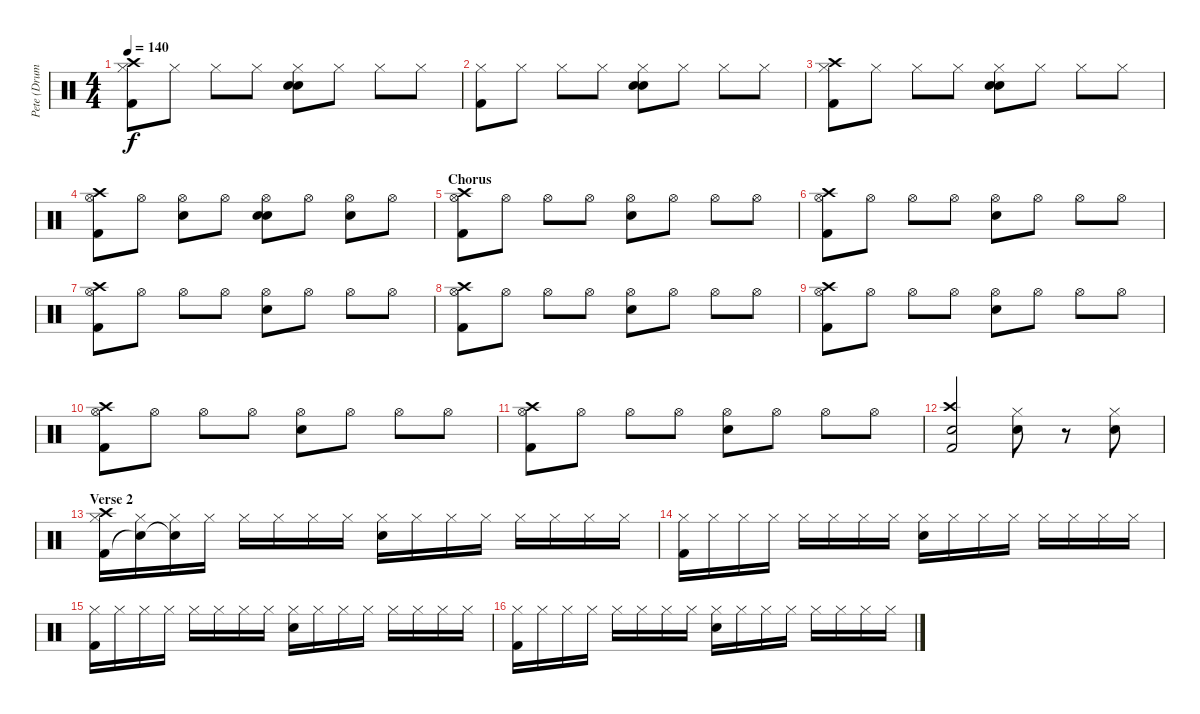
\track ("Pete (Drums)" "Pete (Drum") {instrument percussion}
\staff {score}
\articulation defaults
\ts (4 4)
\tempo 140
\clef neutral
\ks c
("Hi-Hat (closed)" "Kick (hit) 2" "Crash high (hit)").8{dy f} "Hi-Hat (closed)".8 "Hi-Hat (closed)".8 "Hi-Hat (closed)".8 ("Hi-Hat (closed)" "Snare (hit) 2" "Snare (hit) 2").8 "Hi-Hat (closed)".8 "Hi-Hat (closed)".8 "Hi-Hat (closed)".8 |
("Hi-Hat (closed)" "Kick (hit) 2").8 "Hi-Hat (closed)".8 "Hi-Hat (closed)".8 "Hi-Hat (closed)".8 ("Hi-Hat (closed)" "Snare (hit) 2" "Snare (hit) 2").8 "Hi-Hat (closed)".8 "Hi-Hat (closed)".8 "Hi-Hat (closed)".8 |
("Hi-Hat (closed)" "Kick (hit) 2" "Crash high (hit)").8 "Hi-Hat (closed)".8 "Hi-Hat (closed)".8 "Hi-Hat (closed)".8 ("Hi-Hat (closed)" "Snare (hit) 2" "Snare (hit) 2").8 "Hi-Hat (closed)".8 "Hi-Hat (closed)".8 "Hi-Hat (closed)".8 |
("Hi-Hat (open)" "Kick (hit) 2" "Crash high (hit)").8 "Hi-Hat (open)".8 ("Hi-Hat (open)" "Snare (hit) 2").8 "Hi-Hat (open)".8 ("Hi-Hat (open)" "Snare (hit) 2" "Snare (hit) 2").8 "Hi-Hat (open)".8 ("Hi-Hat (open)" "Snare (hit) 2").8 "Hi-Hat (open)".8 |
\section ("" "Chorus")
("Hi-Hat (open)" "Kick (hit) 2" "Crash high (hit)").8 "Hi-Hat (open)".8 "Hi-Hat (open)".8 "Hi-Hat (open)".8 ("Hi-Hat (open)" "Snare (hit) 2").8 "Hi-Hat (open)".8 "Hi-Hat (open)".8 "Hi-Hat (open)".8 |
("Hi-Hat (open)" "Kick (hit) 2" "Crash high (hit)").8 "Hi-Hat (open)".8 "Hi-Hat (open)".8 "Hi-Hat (open)".8 ("Hi-Hat (open)" "Snare (hit) 2").8 "Hi-Hat (open)".8 "Hi-Hat (open)".8 "Hi-Hat (open)".8 |
("Hi-Hat (open)" "Kick (hit) 2" "Crash high (hit)").8 "Hi-Hat (open)".8 "Hi-Hat (open)".8 "Hi-Hat (open)".8 ("Hi-Hat (open)" "Snare (hit) 2").8 "Hi-Hat (open)".8 "Hi-Hat (open)".8 "Hi-Hat (open)".8 |
("Hi-Hat (open)" "Kick (hit) 2" "Crash high (hit)").8 "Hi-Hat (open)".8 "Hi-Hat (open)".8 "Hi-Hat (open)".8 ("Hi-Hat (open)" "Snare (hit) 2").8 "Hi-Hat (open)".8 "Hi-Hat (open)".8 "Hi-Hat (open)".8 |
("Hi-Hat (open)" "Kick (hit) 2" "Crash high (hit)").8 "Hi-Hat (open)".8 "Hi-Hat (open)".8 "Hi-Hat (open)".8 ("Hi-Hat (open)" "Snare (hit) 2").8 "Hi-Hat (open)".8 "Hi-Hat (open)".8 "Hi-Hat (open)".8 |
("Hi-Hat (open)" "Kick (hit) 2" "Crash high (hit)").8 "Hi-Hat (open)".8 "Hi-Hat (open)".8 "Hi-Hat (open)".8 ("Hi-Hat (open)" "Snare (hit) 2").8 "Hi-Hat (open)".8 "Hi-Hat (open)".8 "Hi-Hat (open)".8 |
("Hi-Hat (open)" "Kick (hit) 2" "Crash high (hit)").8 "Hi-Hat (open)".8 "Hi-Hat (open)".8 "Hi-Hat (open)".8 ("Hi-Hat (open)" "Snare (hit) 2").8 "Hi-Hat (open)".8 "Hi-Hat (open)".8 "Hi-Hat (open)".8 |
("Snare (hit) 2" "Kick (hit) 2" "Crash high (hit)").2 ("Snare (hit) 2" "Hi-Hat (closed)").8 r.8 ("Snare (hit) 2" "Hi-Hat (closed)").8 |
\section ("" "Verse 2")
("Hi-Hat (closed)" "Kick (hit) 2" "Crash high (hit)").16 ("Hi-Hat (closed)" "Snare (hit)"{t}).16 ("Hi-Hat (closed)" "Snare (hit)"{t}).16 "Hi-Hat (closed)".16 "Hi-Hat (closed)".16 "Hi-Hat (closed)".16 "Hi-Hat (closed)".16 "Hi-Hat (closed)".16 ("Hi-Hat (closed)" "Snare (hit) 2").16 "Hi-Hat (closed)".16 "Hi-Hat (closed)".16 "Hi-Hat (closed)".16 "Hi-Hat (closed)".16 "Hi-Hat (closed)".16 "Hi-Hat (closed)".16 "Hi-Hat (closed)".16 |
("Hi-Hat (closed)" "Kick (hit) 2").16 "Hi-Hat (closed)".16 "Hi-Hat (closed)".16 "Hi-Hat (closed)".16 "Hi-Hat (closed)".16 "Hi-Hat (closed)".16 "Hi-Hat (closed)".16 "Hi-Hat (closed)".16 ("Hi-Hat (closed)" "Snare (hit) 2").16 "Hi-Hat (closed)".16 "Hi-Hat (closed)".16 "Hi-Hat (closed)".16 "Hi-Hat (closed)".16 "Hi-Hat (closed)".16 "Hi-Hat (closed)".16 "Hi-Hat (closed)".16 |
("Hi-Hat (closed)" "Kick (hit) 2").16 "Hi-Hat (closed)".16 "Hi-Hat (closed)".16 "Hi-Hat (closed)".16 "Hi-Hat (closed)".16 "Hi-Hat (closed)".16 "Hi-Hat (closed)".16 "Hi-Hat (closed)".16 ("Hi-Hat (closed)" "Snare (hit) 2").16 "Hi-Hat (closed)".16 "Hi-Hat (closed)".16 "Hi-Hat (closed)".16 "Hi-Hat (closed)".16 "Hi-Hat (closed)".16 "Hi-Hat (closed)".16 "Hi-Hat (closed)".16 |
("Hi-Hat (closed)" "Kick (hit) 2").16 "Hi-Hat (closed)".16 "Hi-Hat (closed)".16 "Hi-Hat (closed)".16 "Hi-Hat (closed)".16 "Hi-Hat (closed)".16 "Hi-Hat (closed)".16 "Hi-Hat (closed)".16 ("Hi-Hat (closed)" "Snare (hit) 2").16 "Hi-Hat (closed)".16 "Hi-Hat (closed)".16 "Hi-Hat (closed)".16 "Hi-Hat (closed)".16 "Hi-Hat (closed)".16 "Hi-Hat (closed)".16 "Hi-Hat (closed)".16
